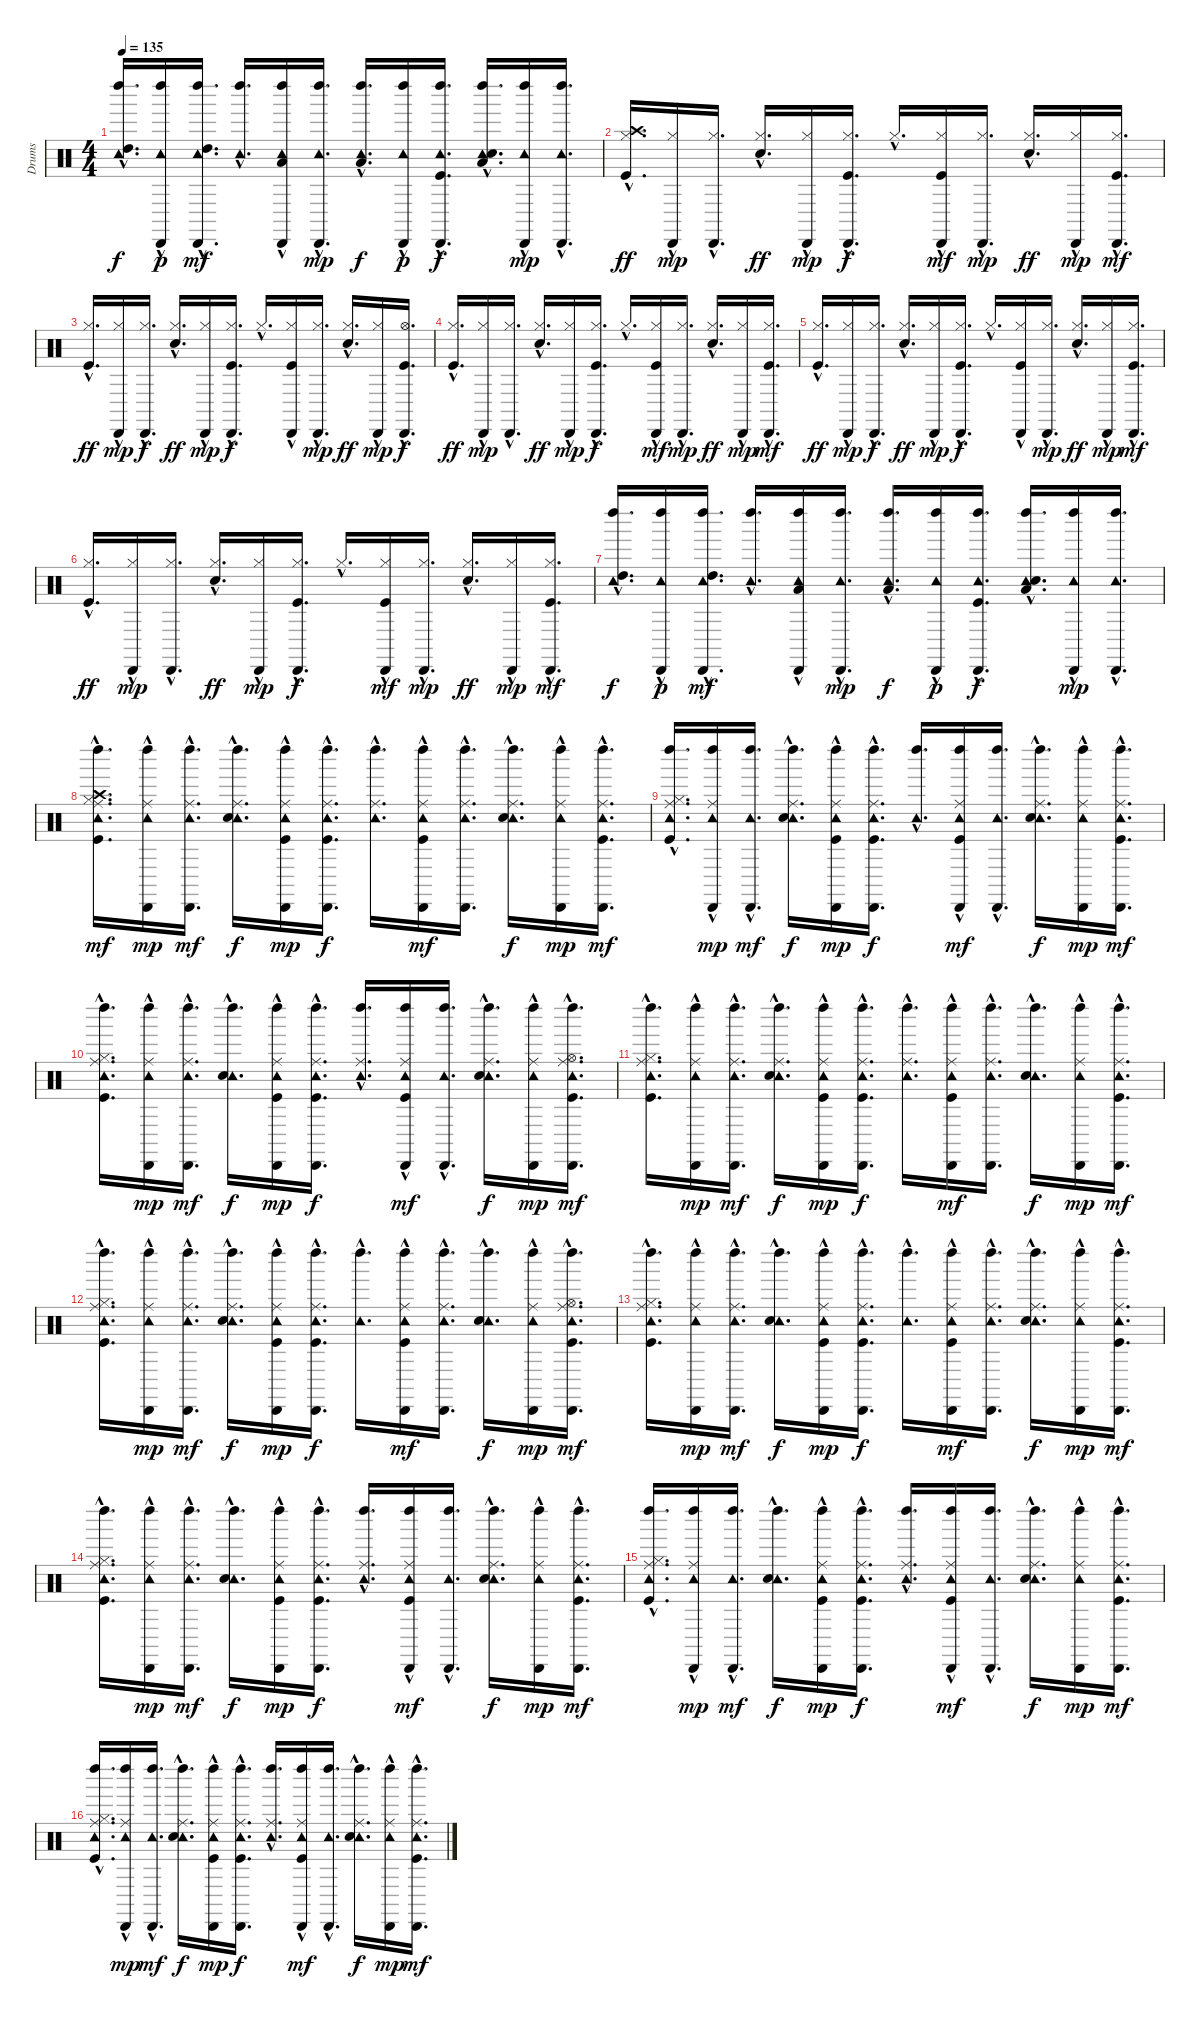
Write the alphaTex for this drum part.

\track ("Drums" "Drums") {instrument percussion}
\staff {score}
\articulation defaults
\ts (4 4)
\tempo 135
\clef neutral
\ks c
("Left Maraca (hit)"{hac} "Tambourine (hit)"{hac} "High Tom (hit)"{hac}).16{d dy f} ("Left Maraca (hit)"{hac} "Cabasa (hit)"{hac} "Tambourine (hit)"{hac}).16{dy p} ("Left Maraca (hit)"{hac} "Cabasa (hit)"{hac} "Tambourine (hit)"{hac} "High Tom (hit)"{hac}).16{d dy mf} ("Left Maraca (hit)"{hac} "Tambourine (hit)"{hac}).16{d} ("Left Maraca (hit)"{hac} "Cabasa (hit)"{hac} "Tambourine (hit)"{hac} "Low Tom (hit)"{hac}).16 ("Left Maraca (hit)"{hac} "Cabasa (hit)"{hac} "Tambourine (hit)"{hac}).16{d dy mp} ("Left Maraca (hit)"{hac} "Tambourine (hit)"{hac} "Low Tom (hit)"{hac}).16{d dy f} ("Left Maraca (hit)"{hac} "Cabasa (hit)"{hac} "Tambourine (hit)"{hac}).16{dy p} ("Left Maraca (hit)"{hac} "Cabasa (hit)"{hac} "Tambourine (hit)"{hac} "Kick (hit)"{hac}).16{d dy f} ("Left Maraca (hit)"{hac} "Tambourine (hit)"{hac} "Low Floor Tom (hit)"{hac} "Snare (hit) 2"{hac}).16{d} ("Left Maraca (hit)"{hac} "Cabasa (hit)"{hac} "Tambourine (hit)"{hac}).16{dy mp} ("Left Maraca (hit)"{hac} "Cabasa (hit)"{hac} "Tambourine (hit)"{hac}).16{d} |
("Crash high (hit)"{hac} "Hi-Hat (closed)"{hac} "Kick (hit)"{hac}).16{d dy ff} ("Cabasa (hit)"{hac} "Hi-Hat (closed)"{hac}).16{dy mp} ("Cabasa (hit)"{hac} "Hi-Hat (closed)"{hac}).16{d} ("Hi-Hat (closed)"{hac} "Snare (hit) 2"{hac}).16{d dy ff} ("Cabasa (hit)"{hac} "Hi-Hat (closed)"{hac}).16{dy mp} ("Cabasa (hit)"{hac} "Hi-Hat (closed)"{hac} "Kick (hit)"{hac}).16{d dy f} "Hi-Hat (closed)"{hac}.16{d} ("Cabasa (hit)"{hac} "Hi-Hat (closed)"{hac} "Kick (hit)"{hac}).16{dy mf} ("Cabasa (hit)"{hac} "Hi-Hat (closed)"{hac}).16{d dy mp} ("Hi-Hat (closed)"{hac} "Snare (hit) 2"{hac}).16{d dy ff} ("Cabasa (hit)"{hac} "Hi-Hat (closed)"{hac}).16{dy mp} ("Cabasa (hit)"{hac} "Hi-Hat (closed)"{hac} "Kick (hit)"{hac}).16{d dy mf} |
("Hi-Hat (closed)"{hac} "Kick (hit)"{hac}).16{d dy ff} ("Cabasa (hit)"{hac} "Hi-Hat (closed)"{hac}).16{dy mp} ("Cabasa (hit)"{hac} "Hi-Hat (closed)"{hac}).16{d dy f} ("Hi-Hat (closed)"{hac} "Snare (hit) 2"{hac}).16{d dy ff} ("Cabasa (hit)"{hac} "Hi-Hat (closed)"{hac}).16{dy mp} ("Cabasa (hit)"{hac} "Hi-Hat (closed)"{hac} "Kick (hit)"{hac}).16{d dy f} "Hi-Hat (closed)"{hac}.16{d} ("Cabasa (hit)"{hac} "Hi-Hat (closed)"{hac} "Kick (hit)"{hac}).16 ("Cabasa (hit)"{hac} "Hi-Hat (closed)"{hac}).16{d dy mp} ("Hi-Hat (closed)"{hac} "Snare (hit) 2"{hac}).16{d dy ff} ("Cabasa (hit)"{hac} "Hi-Hat (closed)"{hac}).16{dy mp} ("Cabasa (hit)"{hac} "Hi-Hat (open)"{hac} "Kick (hit)"{hac}).16{d dy f} |
("Hi-Hat (closed)"{hac} "Kick (hit)"{hac}).16{d dy ff} ("Cabasa (hit)"{hac} "Hi-Hat (closed)"{hac}).16{dy mp} ("Cabasa (hit)"{hac} "Hi-Hat (closed)"{hac}).16{d} ("Hi-Hat (closed)"{hac} "Snare (hit) 2"{hac}).16{d dy ff} ("Cabasa (hit)"{hac} "Hi-Hat (closed)"{hac}).16{dy mp} ("Cabasa (hit)"{hac} "Hi-Hat (closed)"{hac} "Kick (hit)"{hac}).16{d dy f} "Hi-Hat (closed)"{hac}.16{d} ("Cabasa (hit)"{hac} "Hi-Hat (closed)"{hac} "Kick (hit)"{hac}).16{dy mf} ("Cabasa (hit)"{hac} "Hi-Hat (closed)"{hac}).16{d dy mp} ("Hi-Hat (closed)"{hac} "Snare (hit) 2"{hac}).16{d dy ff} ("Cabasa (hit)"{hac} "Hi-Hat (closed)"{hac}).16{dy mp} ("Cabasa (hit)"{hac} "Hi-Hat (closed)"{hac} "Kick (hit)"{hac}).16{d dy mf} |
("Hi-Hat (closed)"{hac} "Kick (hit)"{hac}).16{d dy ff} ("Cabasa (hit)"{hac} "Hi-Hat (closed)"{hac}).16{dy mp} ("Cabasa (hit)"{hac} "Hi-Hat (closed)"{hac}).16{d dy f} ("Hi-Hat (closed)"{hac} "Snare (hit) 2"{hac}).16{d dy ff} ("Cabasa (hit)"{hac} "Hi-Hat (closed)"{hac}).16{dy mp} ("Cabasa (hit)"{hac} "Hi-Hat (closed)"{hac} "Kick (hit)"{hac}).16{d dy f} "Hi-Hat (closed)"{hac}.16{d} ("Cabasa (hit)"{hac} "Hi-Hat (closed)"{hac} "Kick (hit)"{hac}).16 ("Cabasa (hit)"{hac} "Hi-Hat (closed)"{hac}).16{d dy mp} ("Hi-Hat (closed)"{hac} "Snare (hit) 2"{hac}).16{d dy ff} ("Cabasa (hit)"{hac} "Hi-Hat (closed)"{hac}).16{dy mp} ("Cabasa (hit)"{hac} "Hi-Hat (closed)"{hac} "Kick (hit)"{hac}).16{d dy mf} |
("Hi-Hat (closed)"{hac} "Kick (hit)"{hac}).16{d dy ff} ("Cabasa (hit)"{hac} "Hi-Hat (closed)"{hac}).16{dy mp} ("Cabasa (hit)"{hac} "Hi-Hat (closed)"{hac}).16{d} ("Hi-Hat (closed)"{hac} "Snare (hit) 2"{hac}).16{d dy ff} ("Cabasa (hit)"{hac} "Hi-Hat (closed)"{hac}).16{dy mp} ("Cabasa (hit)"{hac} "Hi-Hat (closed)"{hac} "Kick (hit)"{hac}).16{d dy f} "Hi-Hat (closed)"{hac}.16{d} ("Cabasa (hit)"{hac} "Hi-Hat (closed)"{hac} "Kick (hit)"{hac}).16{dy mf} ("Cabasa (hit)"{hac} "Hi-Hat (closed)"{hac}).16{d dy mp} ("Hi-Hat (closed)"{hac} "Snare (hit) 2"{hac}).16{d dy ff} ("Cabasa (hit)"{hac} "Hi-Hat (closed)"{hac}).16{dy mp} ("Cabasa (hit)"{hac} "Hi-Hat (closed)"{hac} "Kick (hit)"{hac}).16{d dy mf} |
("Left Maraca (hit)"{hac} "Tambourine (hit)"{hac} "High Tom (hit)"{hac}).16{d dy f} ("Left Maraca (hit)"{hac} "Cabasa (hit)"{hac} "Tambourine (hit)"{hac}).16{dy p} ("Left Maraca (hit)"{hac} "Cabasa (hit)"{hac} "Tambourine (hit)"{hac} "High Tom (hit)"{hac}).16{d dy mf} ("Left Maraca (hit)"{hac} "Tambourine (hit)"{hac}).16{d} ("Left Maraca (hit)"{hac} "Cabasa (hit)"{hac} "Tambourine (hit)"{hac} "Low Tom (hit)"{hac}).16 ("Left Maraca (hit)"{hac} "Cabasa (hit)"{hac} "Tambourine (hit)"{hac}).16{d dy mp} ("Left Maraca (hit)"{hac} "Tambourine (hit)"{hac} "Low Tom (hit)"{hac}).16{d dy f} ("Left Maraca (hit)"{hac} "Cabasa (hit)"{hac} "Tambourine (hit)"{hac}).16{dy p} ("Left Maraca (hit)"{hac} "Cabasa (hit)"{hac} "Tambourine (hit)"{hac} "Kick (hit)"{hac}).16{d dy f} ("Left Maraca (hit)"{hac} "Tambourine (hit)"{hac} "Low Floor Tom (hit)"{hac} "Snare (hit) 2"{hac}).16{d} ("Left Maraca (hit)"{hac} "Cabasa (hit)"{hac} "Tambourine (hit)"{hac}).16{dy mp} ("Left Maraca (hit)"{hac} "Cabasa (hit)"{hac} "Tambourine (hit)"{hac}).16{d} |
("Left Maraca (hit)"{hac} "Tambourine (hit)"{hac} "Ride (middle)"{hac} "Crash high (hit)"{hac} "Hi-Hat (closed)"{hac} "Kick (hit)"{hac}).16{d dy mf} ("Left Maraca (hit)"{hac} "Cabasa (hit)"{hac} "Tambourine (hit)"{hac} "Ride (middle)"{hac}).16{dy mp} ("Left Maraca (hit)"{hac} "Cabasa (hit)"{hac} "Tambourine (hit)"{hac} "Ride (middle)"{hac}).16{d dy mf} ("Left Maraca (hit)"{hac} "Tambourine (hit)"{hac} "Ride (middle)"{hac} "Snare (hit) 2"{hac}).16{d dy f} ("Left Maraca (hit)"{hac} "Cabasa (hit)"{hac} "Tambourine (hit)"{hac} "Ride (middle)"{hac} "Kick (hit)"{hac}).16{dy mp} ("Left Maraca (hit)"{hac} "Cabasa (hit)"{hac} "Tambourine (hit)"{hac} "Ride (middle)"{hac} "Kick (hit)"{hac}).16{d dy f} ("Left Maraca (hit)"{hac} "Tambourine (hit)"{hac} "Ride (middle)"{hac}).16{d} ("Left Maraca (hit)"{hac} "Cabasa (hit)"{hac} "Tambourine (hit)"{hac} "Ride (middle)"{hac} "Kick (hit)"{hac}).16{dy mf} ("Left Maraca (hit)"{hac} "Cabasa (hit)"{hac} "Tambourine (hit)"{hac} "Ride (middle)"{hac}).16{d} ("Left Maraca (hit)"{hac} "Tambourine (hit)"{hac} "Ride (middle)"{hac} "Snare (hit) 2"{hac}).16{d dy f} ("Left Maraca (hit)"{hac} "Cabasa (hit)"{hac} "Tambourine (hit)"{hac} "Ride (middle)"{hac}).16{dy mp} ("Left Maraca (hit)"{hac} "Cabasa (hit)"{hac} "Tambourine (hit)"{hac} "Ride (middle)"{hac} "Kick (hit)"{hac}).16{d dy mf} |
("Left Maraca (hit)"{hac} "Tambourine (hit)"{hac} "Ride (middle)"{hac} "Hi-Hat (closed)"{hac} "Kick (hit)"{hac}).16{d} ("Left Maraca (hit)"{hac} "Cabasa (hit)"{hac} "Tambourine (hit)"{hac} "Ride (middle)"{hac}).16{dy mp} ("Left Maraca (hit)"{hac} "Cabasa (hit)"{hac} "Tambourine (hit)"{hac}).16{d dy mf} ("Left Maraca (hit)"{hac} "Tambourine (hit)"{hac} "Ride (middle)"{hac} "Snare (hit) 2"{hac}).16{d dy f} ("Left Maraca (hit)"{hac} "Cabasa (hit)"{hac} "Tambourine (hit)"{hac} "Ride (middle)"{hac} "Kick (hit)"{hac}).16{dy mp} ("Left Maraca (hit)"{hac} "Cabasa (hit)"{hac} "Tambourine (hit)"{hac} "Ride (middle)"{hac} "Kick (hit)"{hac}).16{d dy f} ("Left Maraca (hit)"{hac} "Tambourine (hit)"{hac}).16{d} ("Left Maraca (hit)"{hac} "Cabasa (hit)"{hac} "Tambourine (hit)"{hac} "Ride (middle)"{hac} "Kick (hit)"{hac}).16{dy mf} ("Left Maraca (hit)"{hac} "Cabasa (hit)"{hac} "Tambourine (hit)"{hac}).16{d} ("Left Maraca (hit)"{hac} "Tambourine (hit)"{hac} "Ride (middle)"{hac} "Snare (hit) 2"{hac}).16{d dy f} ("Left Maraca (hit)"{hac} "Cabasa (hit)"{hac} "Tambourine (hit)"{hac} "Ride (middle)"{hac}).16{dy mp} ("Left Maraca (hit)"{hac} "Cabasa (hit)"{hac} "Tambourine (hit)"{hac} "Ride (middle)"{hac} "Kick (hit)"{hac}).16{d dy mf} |
("Left Maraca (hit)"{hac} "Tambourine (hit)"{hac} "Ride (middle)"{hac} "Hi-Hat (closed)"{hac} "Kick (hit)"{hac}).16{d} ("Left Maraca (hit)"{hac} "Cabasa (hit)"{hac} "Tambourine (hit)"{hac} "Ride (middle)"{hac}).16{dy mp} ("Left Maraca (hit)"{hac} "Cabasa (hit)"{hac} "Tambourine (hit)"{hac} "Ride (middle)"{hac}).16{d dy mf} ("Left Maraca (hit)"{hac} "Tambourine (hit)"{hac} "Snare (hit) 2"{hac}).16{d dy f} ("Left Maraca (hit)"{hac} "Cabasa (hit)"{hac} "Tambourine (hit)"{hac} "Ride (middle)"{hac} "Kick (hit)"{hac}).16{dy mp} ("Left Maraca (hit)"{hac} "Cabasa (hit)"{hac} "Tambourine (hit)"{hac} "Ride (middle)"{hac} "Kick (hit)"{hac}).16{d dy f} ("Left Maraca (hit)"{hac} "Tambourine (hit)"{hac} "Ride (middle)"{hac}).16{d} ("Left Maraca (hit)"{hac} "Cabasa (hit)"{hac} "Tambourine (hit)"{hac} "Ride (middle)"{hac} "Kick (hit)"{hac}).16{dy mf} ("Left Maraca (hit)"{hac} "Cabasa (hit)"{hac} "Tambourine (hit)"{hac}).16{d} ("Left Maraca (hit)"{hac} "Tambourine (hit)"{hac} "Ride (middle)"{hac} "Snare (hit) 2"{hac}).16{d dy f} ("Left Maraca (hit)"{hac} "Cabasa (hit)"{hac} "Tambourine (hit)"{hac} "Ride (middle)"{hac}).16{dy mp} ("Left Maraca (hit)"{hac} "Cabasa (hit)"{hac} "Tambourine (hit)"{hac} "Ride (middle)"{hac} "Hi-Hat (open)"{hac} "Kick (hit)"{hac}).16{d dy mf} |
("Left Maraca (hit)"{hac} "Tambourine (hit)"{hac} "Ride (middle)"{hac} "Hi-Hat (closed)"{hac} "Kick (hit)"{hac}).16{d} ("Left Maraca (hit)"{hac} "Cabasa (hit)"{hac} "Tambourine (hit)"{hac} "Ride (middle)"{hac}).16{dy mp} ("Left Maraca (hit)"{hac} "Cabasa (hit)"{hac} "Tambourine (hit)"{hac} "Ride (middle)"{hac}).16{d dy mf} ("Left Maraca (hit)"{hac} "Tambourine (hit)"{hac} "Ride (middle)"{hac} "Snare (hit) 2"{hac}).16{d dy f} ("Left Maraca (hit)"{hac} "Cabasa (hit)"{hac} "Tambourine (hit)"{hac} "Ride (middle)"{hac} "Kick (hit)"{hac}).16{dy mp} ("Left Maraca (hit)"{hac} "Cabasa (hit)"{hac} "Tambourine (hit)"{hac} "Ride (middle)"{hac} "Kick (hit)"{hac}).16{d dy f} ("Left Maraca (hit)"{hac} "Tambourine (hit)"{hac} "Ride (middle)"{hac}).16{d} ("Left Maraca (hit)"{hac} "Cabasa (hit)"{hac} "Tambourine (hit)"{hac} "Ride (middle)"{hac} "Kick (hit)"{hac}).16{dy mf} ("Left Maraca (hit)"{hac} "Cabasa (hit)"{hac} "Tambourine (hit)"{hac} "Ride (middle)"{hac}).16{d} ("Left Maraca (hit)"{hac} "Tambourine (hit)"{hac} "Snare (hit) 2"{hac}).16{d dy f} ("Left Maraca (hit)"{hac} "Cabasa (hit)"{hac} "Tambourine (hit)"{hac} "Ride (middle)"{hac}).16{dy mp} ("Left Maraca (hit)"{hac} "Cabasa (hit)"{hac} "Tambourine (hit)"{hac} "Ride (middle)"{hac} "Kick (hit)"{hac}).16{d dy mf} |
("Left Maraca (hit)"{hac} "Tambourine (hit)"{hac} "Ride (middle)"{hac} "Hi-Hat (closed)"{hac} "Kick (hit)"{hac}).16{d} ("Left Maraca (hit)"{hac} "Cabasa (hit)"{hac} "Tambourine (hit)"{hac} "Ride (middle)"{hac}).16{dy mp} ("Left Maraca (hit)"{hac} "Cabasa (hit)"{hac} "Tambourine (hit)"{hac} "Ride (middle)"{hac}).16{d dy mf} ("Left Maraca (hit)"{hac} "Tambourine (hit)"{hac} "Ride (middle)"{hac} "Snare (hit) 2"{hac}).16{d dy f} ("Left Maraca (hit)"{hac} "Cabasa (hit)"{hac} "Tambourine (hit)"{hac} "Ride (middle)"{hac} "Kick (hit)"{hac}).16{dy mp} ("Left Maraca (hit)"{hac} "Cabasa (hit)"{hac} "Tambourine (hit)"{hac} "Ride (middle)"{hac} "Kick (hit)"{hac}).16{d dy f} ("Left Maraca (hit)"{hac} "Tambourine (hit)"{hac}).16{d} ("Left Maraca (hit)"{hac} "Cabasa (hit)"{hac} "Tambourine (hit)"{hac} "Ride (middle)"{hac} "Kick (hit)"{hac}).16{dy mf} ("Left Maraca (hit)"{hac} "Cabasa (hit)"{hac} "Tambourine (hit)"{hac} "Ride (middle)"{hac}).16{d} ("Left Maraca (hit)"{hac} "Tambourine (hit)"{hac} "Snare (hit) 2"{hac}).16{d dy f} ("Left Maraca (hit)"{hac} "Cabasa (hit)"{hac} "Tambourine (hit)"{hac} "Ride (middle)"{hac}).16{dy mp} ("Left Maraca (hit)"{hac} "Cabasa (hit)"{hac} "Tambourine (hit)"{hac} "Ride (middle)"{hac} "Hi-Hat (open)"{hac} "Kick (hit)"{hac}).16{d dy mf} |
("Left Maraca (hit)"{hac} "Tambourine (hit)"{hac} "Ride (middle)"{hac} "Hi-Hat (closed)"{hac} "Kick (hit)"{hac}).16{d} ("Left Maraca (hit)"{hac} "Cabasa (hit)"{hac} "Tambourine (hit)"{hac} "Ride (middle)"{hac}).16{dy mp} ("Left Maraca (hit)"{hac} "Cabasa (hit)"{hac} "Tambourine (hit)"{hac} "Ride (middle)"{hac}).16{d dy mf} ("Left Maraca (hit)"{hac} "Tambourine (hit)"{hac} "Snare (hit) 2"{hac}).16{d dy f} ("Left Maraca (hit)"{hac} "Cabasa (hit)"{hac} "Tambourine (hit)"{hac} "Ride (middle)"{hac} "Kick (hit)"{hac}).16{dy mp} ("Left Maraca (hit)"{hac} "Cabasa (hit)"{hac} "Tambourine (hit)"{hac} "Ride (middle)"{hac} "Kick (hit)"{hac}).16{d dy f} ("Left Maraca (hit)"{hac} "Tambourine (hit)"{hac}).16{d} ("Left Maraca (hit)"{hac} "Cabasa (hit)"{hac} "Tambourine (hit)"{hac} "Ride (middle)"{hac} "Kick (hit)"{hac}).16{dy mf} ("Left Maraca (hit)"{hac} "Cabasa (hit)"{hac} "Tambourine (hit)"{hac} "Ride (middle)"{hac}).16{d} ("Left Maraca (hit)"{hac} "Tambourine (hit)"{hac} "Ride (middle)"{hac} "Snare (hit) 2"{hac}).16{d dy f} ("Left Maraca (hit)"{hac} "Cabasa (hit)"{hac} "Tambourine (hit)"{hac} "Ride (middle)"{hac}).16{dy mp} ("Left Maraca (hit)"{hac} "Cabasa (hit)"{hac} "Tambourine (hit)"{hac} "Ride (middle)"{hac} "Kick (hit)"{hac}).16{d dy mf} |
("Left Maraca (hit)"{hac} "Tambourine (hit)"{hac} "Ride (middle)"{hac} "Hi-Hat (closed)"{hac} "Kick (hit)"{hac}).16{d} ("Left Maraca (hit)"{hac} "Cabasa (hit)"{hac} "Tambourine (hit)"{hac} "Ride (middle)"{hac}).16{dy mp} ("Left Maraca (hit)"{hac} "Cabasa (hit)"{hac} "Tambourine (hit)"{hac} "Ride (middle)"{hac}).16{d dy mf} ("Left Maraca (hit)"{hac} "Tambourine (hit)"{hac} "Snare (hit) 2"{hac}).16{d dy f} ("Left Maraca (hit)"{hac} "Cabasa (hit)"{hac} "Tambourine (hit)"{hac} "Ride (middle)"{hac} "Kick (hit)"{hac}).16{dy mp} ("Left Maraca (hit)"{hac} "Cabasa (hit)"{hac} "Tambourine (hit)"{hac} "Ride (middle)"{hac} "Kick (hit)"{hac}).16{d dy f} ("Left Maraca (hit)"{hac} "Tambourine (hit)"{hac} "Ride (middle)"{hac}).16{d} ("Left Maraca (hit)"{hac} "Cabasa (hit)"{hac} "Tambourine (hit)"{hac} "Ride (middle)"{hac} "Kick (hit)"{hac}).16{dy mf} ("Left Maraca (hit)"{hac} "Cabasa (hit)"{hac} "Tambourine (hit)"{hac}).16{d} ("Left Maraca (hit)"{hac} "Tambourine (hit)"{hac} "Ride (middle)"{hac} "Snare (hit) 2"{hac}).16{d dy f} ("Left Maraca (hit)"{hac} "Cabasa (hit)"{hac} "Tambourine (hit)"{hac} "Ride (middle)"{hac}).16{dy mp} ("Left Maraca (hit)"{hac} "Cabasa (hit)"{hac} "Tambourine (hit)"{hac} "Ride (middle)"{hac} "Kick (hit)"{hac}).16{d dy mf} |
("Left Maraca (hit)"{hac} "Tambourine (hit)"{hac} "Ride (middle)"{hac} "Hi-Hat (closed)"{hac} "Kick (hit)"{hac}).16{d} ("Left Maraca (hit)"{hac} "Cabasa (hit)"{hac} "Tambourine (hit)"{hac} "Ride (middle)"{hac}).16{dy mp} ("Left Maraca (hit)"{hac} "Cabasa (hit)"{hac} "Tambourine (hit)"{hac}).16{d dy mf} ("Left Maraca (hit)"{hac} "Tambourine (hit)"{hac} "Snare (hit) 2"{hac}).16{d dy f} ("Left Maraca (hit)"{hac} "Cabasa (hit)"{hac} "Tambourine (hit)"{hac} "Ride (middle)"{hac} "Kick (hit)"{hac}).16{dy mp} ("Left Maraca (hit)"{hac} "Cabasa (hit)"{hac} "Tambourine (hit)"{hac} "Ride (middle)"{hac} "Kick (hit)"{hac}).16{d dy f} ("Left Maraca (hit)"{hac} "Tambourine (hit)"{hac} "Ride (middle)"{hac}).16{d} ("Left Maraca (hit)"{hac} "Cabasa (hit)"{hac} "Tambourine (hit)"{hac} "Ride (middle)"{hac} "Kick (hit)"{hac}).16{dy mf} ("Left Maraca (hit)"{hac} "Cabasa (hit)"{hac} "Tambourine (hit)"{hac}).16{d} ("Left Maraca (hit)"{hac} "Tambourine (hit)"{hac} "Ride (middle)"{hac} "Snare (hit) 2"{hac}).16{d dy f} ("Left Maraca (hit)"{hac} "Cabasa (hit)"{hac} "Tambourine (hit)"{hac} "Ride (middle)"{hac}).16{dy mp} ("Left Maraca (hit)"{hac} "Cabasa (hit)"{hac} "Tambourine (hit)"{hac} "Ride (middle)"{hac} "Kick (hit)"{hac}).16{d dy mf} |
("Left Maraca (hit)"{hac} "Tambourine (hit)"{hac} "Ride (middle)"{hac} "Hi-Hat (closed)"{hac} "Kick (hit)"{hac}).16{d} ("Left Maraca (hit)"{hac} "Cabasa (hit)"{hac} "Tambourine (hit)"{hac} "Ride (middle)"{hac}).16{dy mp} ("Left Maraca (hit)"{hac} "Cabasa (hit)"{hac} "Tambourine (hit)"{hac}).16{d dy mf} ("Left Maraca (hit)"{hac} "Tambourine (hit)"{hac} "Ride (middle)"{hac} "Snare (hit) 2"{hac}).16{d dy f} ("Left Maraca (hit)"{hac} "Cabasa (hit)"{hac} "Tambourine (hit)"{hac} "Ride (middle)"{hac} "Kick (hit)"{hac}).16{dy mp} ("Left Maraca (hit)"{hac} "Cabasa (hit)"{hac} "Tambourine (hit)"{hac} "Ride (middle)"{hac} "Kick (hit)"{hac}).16{d dy f} ("Left Maraca (hit)"{hac} "Tambourine (hit)"{hac} "Ride (middle)"{hac}).16{d} ("Left Maraca (hit)"{hac} "Cabasa (hit)"{hac} "Tambourine (hit)"{hac} "Ride (middle)"{hac} "Kick (hit)"{hac}).16{dy mf} ("Left Maraca (hit)"{hac} "Cabasa (hit)"{hac} "Tambourine (hit)"{hac}).16{d} ("Left Maraca (hit)"{hac} "Tambourine (hit)"{hac} "Ride (middle)"{hac} "Snare (hit) 2"{hac}).16{d dy f} ("Left Maraca (hit)"{hac} "Cabasa (hit)"{hac} "Tambourine (hit)"{hac} "Ride (middle)"{hac}).16{dy mp} ("Left Maraca (hit)"{hac} "Cabasa (hit)"{hac} "Tambourine (hit)"{hac} "Ride (middle)"{hac} "Kick (hit)"{hac}).16{d dy mf}
